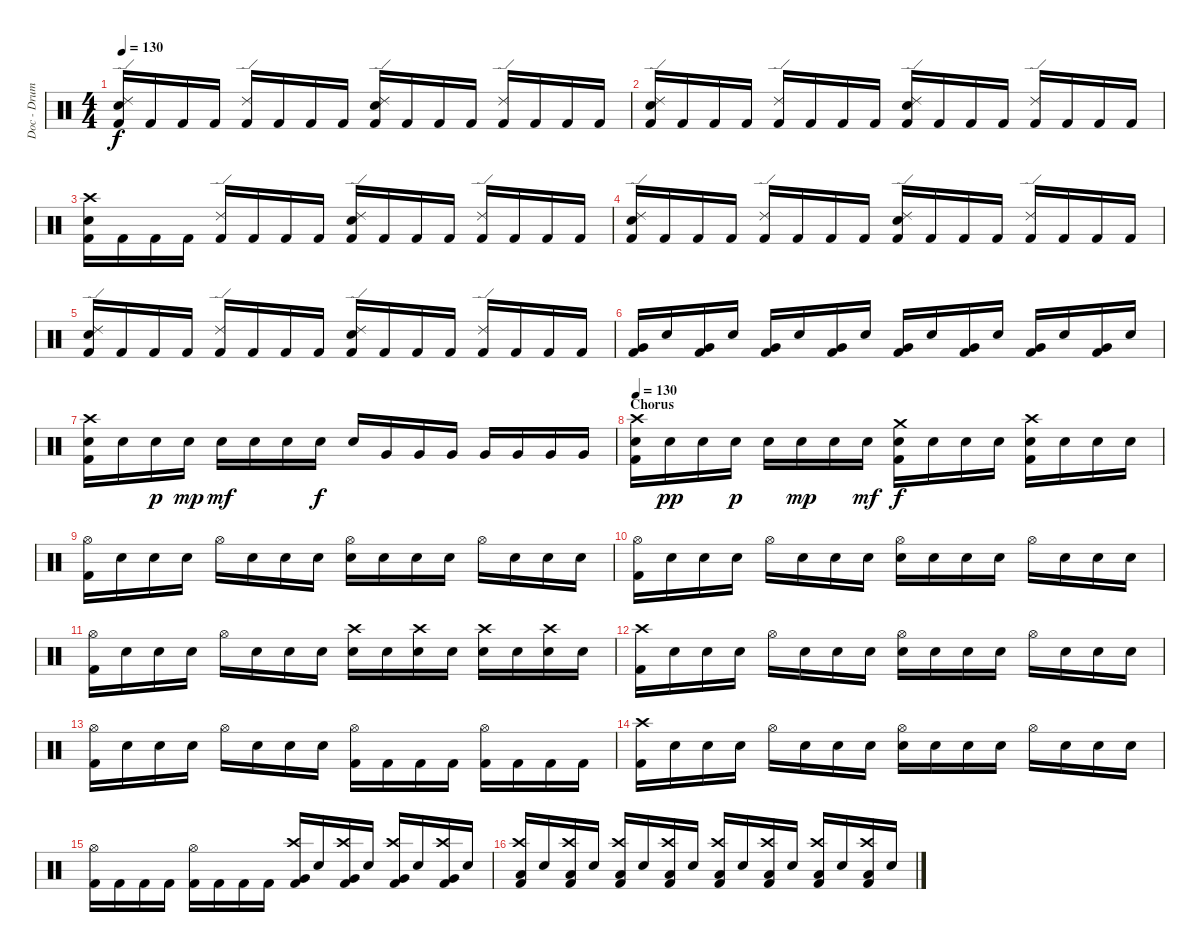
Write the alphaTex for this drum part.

\track ("Doc - Drums" "Doc - Drum") {instrument percussion}
\staff {score}
\articulation defaults
\ts (4 4)
\tempo 130
\clef neutral
\ks c
("Ride (edge) 2" "Electric Snare (hit)" "Kick (hit) 2").16{dy f} "Kick (hit) 2".16 "Kick (hit) 2".16 "Kick (hit) 2".16 ("Ride (edge) 2" "Kick (hit) 2").16 "Kick (hit) 2".16 "Kick (hit) 2".16 "Kick (hit) 2".16 ("Ride (edge) 2" "Electric Snare (hit)" "Kick (hit) 2").16 "Kick (hit) 2".16 "Kick (hit) 2".16 "Kick (hit) 2".16 ("Ride (edge) 2" "Kick (hit) 2").16 "Kick (hit) 2".16 "Kick (hit) 2".16 "Kick (hit) 2".16 |
("Ride (edge) 2" "Electric Snare (hit)" "Kick (hit) 2").16 "Kick (hit) 2".16 "Kick (hit) 2".16 "Kick (hit) 2".16 ("Ride (edge) 2" "Kick (hit) 2").16 "Kick (hit) 2".16 "Kick (hit) 2".16 "Kick (hit) 2".16 ("Ride (edge) 2" "Electric Snare (hit)" "Kick (hit) 2").16 "Kick (hit) 2".16 "Kick (hit) 2".16 "Kick (hit) 2".16 ("Ride (edge) 2" "Kick (hit) 2").16 "Kick (hit) 2".16 "Kick (hit) 2".16 "Kick (hit) 2".16 |
("Crash high (hit)" "Electric Snare (hit)" "Kick (hit) 2").16 "Kick (hit) 2".16 "Kick (hit) 2".16 "Kick (hit) 2".16 ("Ride (edge) 2" "Kick (hit) 2").16 "Kick (hit) 2".16 "Kick (hit) 2".16 "Kick (hit) 2".16 ("Ride (edge) 2" "Electric Snare (hit)" "Kick (hit) 2").16 "Kick (hit) 2".16 "Kick (hit) 2".16 "Kick (hit) 2".16 ("Ride (edge) 2" "Kick (hit) 2").16 "Kick (hit) 2".16 "Kick (hit) 2".16 "Kick (hit) 2".16 |
("Ride (edge) 2" "Electric Snare (hit)" "Kick (hit) 2").16 "Kick (hit) 2".16 "Kick (hit) 2".16 "Kick (hit) 2".16 ("Ride (edge) 2" "Kick (hit) 2").16 "Kick (hit) 2".16 "Kick (hit) 2".16 "Kick (hit) 2".16 ("Ride (edge) 2" "Electric Snare (hit)" "Kick (hit) 2").16 "Kick (hit) 2".16 "Kick (hit) 2".16 "Kick (hit) 2".16 ("Ride (edge) 2" "Kick (hit) 2").16 "Kick (hit) 2".16 "Kick (hit) 2".16 "Kick (hit) 2".16 |
("Ride (edge) 2" "Electric Snare (hit)" "Kick (hit) 2").16 "Kick (hit) 2".16 "Kick (hit) 2".16 "Kick (hit) 2".16 ("Ride (edge) 2" "Kick (hit) 2").16 "Kick (hit) 2".16 "Kick (hit) 2".16 "Kick (hit) 2".16 ("Ride (edge) 2" "Electric Snare (hit)" "Kick (hit) 2").16 "Kick (hit) 2".16 "Kick (hit) 2".16 "Kick (hit) 2".16 ("Ride (edge) 2" "Kick (hit) 2").16 "Kick (hit) 2".16 "Kick (hit) 2".16 "Kick (hit) 2".16 |
("Very Low Tom (hit)" "Kick (hit) 2").16 "Snare (hit)".16 ("Very Low Tom (hit)" "Kick (hit) 2").16 "Snare (hit)".16 ("Very Low Tom (hit)" "Kick (hit) 2").16 "Snare (hit)".16 ("Very Low Tom (hit)" "Kick (hit) 2").16 "Snare (hit)".16 ("Very Low Tom (hit)" "Kick (hit) 2").16 "Snare (hit)".16 ("Very Low Tom (hit)" "Kick (hit) 2").16 "Snare (hit)".16 ("Very Low Tom (hit)" "Kick (hit) 2").16 "Snare (hit)".16 ("Very Low Tom (hit)" "Kick (hit) 2").16 "Snare (hit)".16 |
("Crash high (hit)" "Electric Snare (hit)" "Kick (hit) 2").16 "Snare (hit)".16 "Electric Snare (hit)".16{dy p} "Electric Snare (hit)".16{dy mp} "Electric Snare (hit)".16{dy mf} "Electric Snare (hit)".16 "Electric Snare (hit)".16 "Electric Snare (hit)".16{dy f} "Electric Snare (hit)".16 "Very Low Tom (hit)".16 "Very Low Tom (hit)".16 "Very Low Tom (hit)".16 "Very Low Tom (hit)".16 "Very Low Tom (hit)".16 "Very Low Tom (hit)".16 "Very Low Tom (hit)".16 |
\section ("" "Chorus")
\tempo 130
("Crash high (hit)" "Electric Snare (hit)" "Kick (hit) 2").16{volume 16 balance 8} "Electric Snare (hit)".16{dy pp} "Electric Snare (hit)".16 "Electric Snare (hit)".16{dy p} "Electric Snare (hit)".16 "Electric Snare (hit)".16{dy mp} "Electric Snare (hit)".16 "Electric Snare (hit)".16{dy mf} ("Crash medium (hit)" "Electric Snare (hit)" "Kick (hit) 2").16{dy f} "Snare (hit)".16 "Snare (hit)".16 "Snare (hit)".16 ("Crash high (hit)" "Electric Snare (hit)" "Kick (hit) 2").16 "Snare (hit)".16 "Snare (hit)".16 "Snare (hit)".16 |
("Hi-Hat (open)" "Kick (hit) 2").16 "Snare (hit)".16 "Snare (hit)".16 "Snare (hit)".16 "Hi-Hat (open)".16 "Snare (hit)".16 "Snare (hit)".16 "Snare (hit)".16 ("Hi-Hat (open)" "Electric Snare (hit)").16 "Snare (hit)".16 "Snare (hit)".16 "Snare (hit)".16 "Hi-Hat (open)".16 "Snare (hit)".16 "Snare (hit)".16 "Snare (hit)".16 |
("Hi-Hat (open)" "Kick (hit) 2").16 "Snare (hit)".16 "Snare (hit)".16 "Snare (hit)".16 "Hi-Hat (open)".16 "Snare (hit)".16 "Snare (hit)".16 "Snare (hit)".16 ("Hi-Hat (open)" "Electric Snare (hit)").16 "Snare (hit)".16 "Snare (hit)".16 "Snare (hit)".16 "Hi-Hat (open)".16 "Snare (hit)".16 "Snare (hit)".16 "Snare (hit)".16 |
("Hi-Hat (open)" "Kick (hit) 2").16 "Snare (hit)".16 "Snare (hit)".16 "Snare (hit)".16 "Hi-Hat (open)".16 "Snare (hit)".16 "Snare (hit)".16 "Snare (hit)".16 ("Crash high (hit)" "Electric Snare (hit)").16 "Snare (hit)".16 ("Crash high (hit)" "Electric Snare (hit)").16 "Snare (hit)".16 ("Crash high (hit)" "Electric Snare (hit)").16 "Snare (hit)".16 ("Crash high (hit)" "Electric Snare (hit)").16 "Snare (hit)".16 |
("Crash high (hit)" "Kick (hit) 2").16 "Snare (hit)".16 "Snare (hit)".16 "Snare (hit)".16 "Hi-Hat (open)".16 "Snare (hit)".16 "Snare (hit)".16 "Snare (hit)".16 ("Hi-Hat (open)" "Electric Snare (hit)").16 "Snare (hit)".16 "Snare (hit)".16 "Snare (hit)".16 "Hi-Hat (open)".16 "Snare (hit)".16 "Snare (hit)".16 "Snare (hit)".16 |
("Hi-Hat (open)" "Kick (hit) 2").16 "Snare (hit)".16 "Snare (hit)".16 "Snare (hit)".16 "Hi-Hat (open)".16 "Snare (hit)".16 "Snare (hit)".16 "Snare (hit)".16 ("Hi-Hat (open)" "Kick (hit) 2").16 "Kick (hit) 2".16 "Kick (hit) 2".16 "Kick (hit) 2".16 ("Hi-Hat (open)" "Kick (hit) 2").16 "Kick (hit) 2".16 "Kick (hit) 2".16 "Kick (hit) 2".16 |
("Crash high (hit)" "Kick (hit) 2").16 "Snare (hit)".16 "Snare (hit)".16 "Snare (hit)".16 "Hi-Hat (open)".16 "Snare (hit)".16 "Snare (hit)".16 "Snare (hit)".16 ("Hi-Hat (open)" "Electric Snare (hit)").16 "Snare (hit)".16 "Snare (hit)".16 "Snare (hit)".16 "Hi-Hat (open)".16 "Snare (hit)".16 "Snare (hit)".16 "Snare (hit)".16 |
("Hi-Hat (open)" "Kick (hit) 2").16 "Kick (hit) 2".16 "Kick (hit) 2".16 "Kick (hit) 2".16 ("Hi-Hat (open)" "Kick (hit) 2").16 "Kick (hit) 2".16 "Kick (hit) 2".16 "Kick (hit) 2".16 ("Crash high (hit)" "Very Low Tom (hit)" "Kick (hit) 2").16 "Snare (hit)".16 ("Crash high (hit)" "Very Low Tom (hit)" "Kick (hit) 2").16 "Snare (hit)".16 ("Crash high (hit)" "Very Low Tom (hit)" "Kick (hit) 2").16 "Snare (hit)".16 ("Crash high (hit)" "Very Low Tom (hit)" "Kick (hit) 2").16 "Snare (hit)".16 |
("Crash high (hit)" "Low Floor Tom (hit)" "Kick (hit) 2").16 "Snare (hit)".16 ("Crash high (hit)" "Low Floor Tom (hit)" "Kick (hit) 2").16 "Snare (hit)".16 ("Crash high (hit)" "Low Floor Tom (hit)" "Kick (hit) 2").16 "Snare (hit)".16 ("Crash high (hit)" "Low Floor Tom (hit)" "Kick (hit) 2").16 "Snare (hit)".16 ("Crash high (hit)" "Low Floor Tom (hit)" "Kick (hit) 2").16 "Snare (hit)".16 ("Crash high (hit)" "Low Floor Tom (hit)" "Kick (hit) 2").16 "Snare (hit)".16 ("Crash high (hit)" "Low Floor Tom (hit)" "Kick (hit) 2").16 "Snare (hit)".16 ("Crash high (hit)" "Low Floor Tom (hit)" "Kick (hit) 2").16 "Snare (hit)".16
